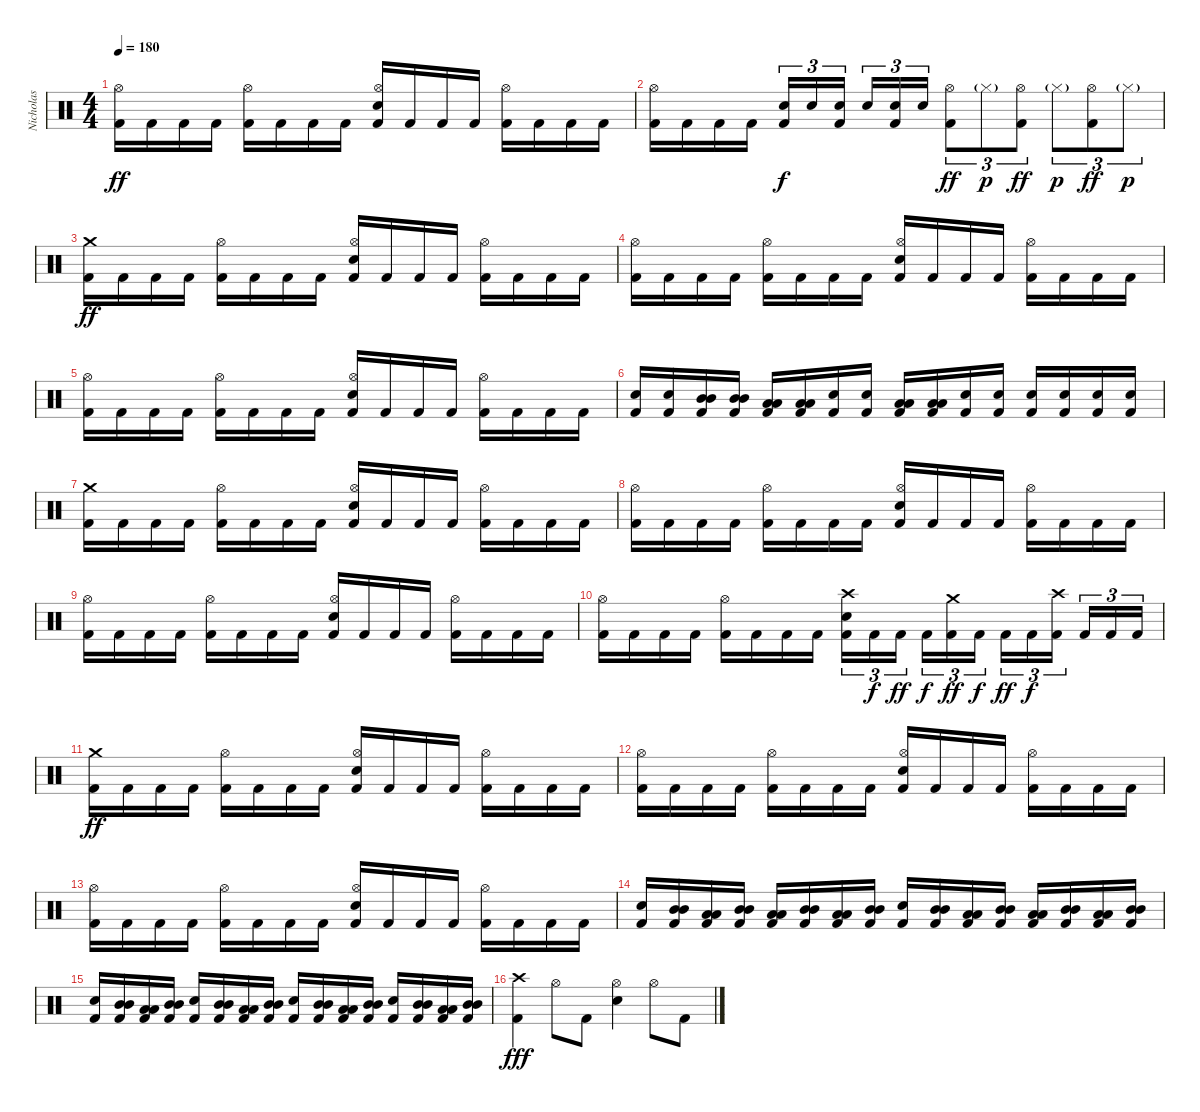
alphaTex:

\track ("Nicholas" "Nicholas") {instrument percussion}
\staff {score}
\articulation defaults
\ts (4 4)
\tempo 180
\clef neutral
\ks c
("Kick (hit) 2" "Hi-Hat (open)").16{dy ff} "Kick (hit) 2".16 "Kick (hit) 2".16 "Kick (hit) 2".16 ("Kick (hit) 2" "Hi-Hat (open)").16 "Kick (hit) 2".16 "Kick (hit) 2".16 "Kick (hit) 2".16 ("Kick (hit) 2" "Electric Snare (hit)" "Hi-Hat (open)").16 "Kick (hit) 2".16 "Kick (hit) 2".16 "Kick (hit) 2".16 ("Kick (hit) 2" "Hi-Hat (open)").16 "Kick (hit) 2".16 "Kick (hit) 2".16 "Kick (hit) 2".16 |
("Kick (hit) 2" "Hi-Hat (open)").16 "Kick (hit) 2".16 "Kick (hit) 2".16 "Kick (hit) 2".16 ("Kick (hit) 2" "Electric Snare (hit)").16{tu (3 2) dy f} "Electric Snare (hit)".16{tu (3 2)} ("Kick (hit) 2" "Electric Snare (hit)").16{tu (3 2) beam splitsecondary} "Electric Snare (hit)".16{tu (3 2)} ("Kick (hit) 2" "Electric Snare (hit)").16{tu (3 2)} "Electric Snare (hit)".16{tu (3 2)} ("Kick (hit) 2" "Hi-Hat (open)").8{tu (3 2) dy ff} "Hi-Hat (closed)"{g}.8{tu (3 2) dy p} ("Kick (hit) 2" "Hi-Hat (open)").8{tu (3 2) dy ff} "Hi-Hat (closed)"{g}.8{tu (3 2) dy p} ("Kick (hit) 2" "Hi-Hat (open)").8{tu (3 2) dy ff} "Hi-Hat (closed)"{g}.8{tu (3 2) dy p} |
("Kick (hit) 2" "Crash medium (hit)").16{dy ff} "Kick (hit) 2".16 "Kick (hit) 2".16 "Kick (hit) 2".16 ("Kick (hit) 2" "Hi-Hat (open)").16 "Kick (hit) 2".16 "Kick (hit) 2".16 "Kick (hit) 2".16 ("Kick (hit) 2" "Electric Snare (hit)" "Hi-Hat (open)").16 "Kick (hit) 2".16 "Kick (hit) 2".16 "Kick (hit) 2".16 ("Kick (hit) 2" "Hi-Hat (open)").16 "Kick (hit) 2".16 "Kick (hit) 2".16 "Kick (hit) 2".16 |
("Kick (hit) 2" "Hi-Hat (open)").16 "Kick (hit) 2".16 "Kick (hit) 2".16 "Kick (hit) 2".16 ("Kick (hit) 2" "Hi-Hat (open)").16 "Kick (hit) 2".16 "Kick (hit) 2".16 "Kick (hit) 2".16 ("Kick (hit) 2" "Electric Snare (hit)" "Hi-Hat (open)").16 "Kick (hit) 2".16 "Kick (hit) 2".16 "Kick (hit) 2".16 ("Kick (hit) 2" "Hi-Hat (open)").16 "Kick (hit) 2".16 "Kick (hit) 2".16 "Kick (hit) 2".16 |
("Kick (hit) 2" "Hi-Hat (open)").16 "Kick (hit) 2".16 "Kick (hit) 2".16 "Kick (hit) 2".16 ("Kick (hit) 2" "Hi-Hat (open)").16 "Kick (hit) 2".16 "Kick (hit) 2".16 "Kick (hit) 2".16 ("Kick (hit) 2" "Electric Snare (hit)" "Hi-Hat (open)").16 "Kick (hit) 2".16 "Kick (hit) 2".16 "Kick (hit) 2".16 ("Kick (hit) 2" "Hi-Hat (open)").16 "Kick (hit) 2".16 "Kick (hit) 2".16 "Kick (hit) 2".16 |
("Kick (hit) 2" "Electric Snare (hit)").16 ("Kick (hit) 2" "Electric Snare (hit)").16 ("Kick (hit) 2" "Mid Tom (hit)" "Mid Tom (hit)").16 ("Kick (hit) 2" "Mid Tom (hit)" "Mid Tom (hit)").16 ("Kick (hit) 2" "Low Tom (hit)" "Low Tom (hit)").16 ("Kick (hit) 2" "Low Tom (hit)" "Low Tom (hit)").16 ("Kick (hit) 2" "Electric Snare (hit)").16 ("Kick (hit) 2" "Electric Snare (hit)").16 ("Kick (hit) 2" "Low Tom (hit)" "Low Tom (hit)").16 ("Kick (hit) 2" "Low Tom (hit)" "Low Tom (hit)").16 ("Kick (hit) 2" "Electric Snare (hit)").16 ("Kick (hit) 2" "Electric Snare (hit)").16 ("Kick (hit) 2" "Electric Snare (hit)").16 ("Kick (hit) 2" "Electric Snare (hit)").16 ("Kick (hit) 2" "Electric Snare (hit)").16 ("Kick (hit) 2" "Electric Snare (hit)").16 |
("Kick (hit) 2" "Crash medium (hit)").16 "Kick (hit) 2".16 "Kick (hit) 2".16 "Kick (hit) 2".16 ("Kick (hit) 2" "Hi-Hat (open)").16 "Kick (hit) 2".16 "Kick (hit) 2".16 "Kick (hit) 2".16 ("Kick (hit) 2" "Electric Snare (hit)" "Hi-Hat (open)").16 "Kick (hit) 2".16 "Kick (hit) 2".16 "Kick (hit) 2".16 ("Kick (hit) 2" "Hi-Hat (open)").16 "Kick (hit) 2".16 "Kick (hit) 2".16 "Kick (hit) 2".16 |
("Kick (hit) 2" "Hi-Hat (open)").16 "Kick (hit) 2".16 "Kick (hit) 2".16 "Kick (hit) 2".16 ("Kick (hit) 2" "Hi-Hat (open)").16 "Kick (hit) 2".16 "Kick (hit) 2".16 "Kick (hit) 2".16 ("Kick (hit) 2" "Electric Snare (hit)" "Hi-Hat (open)").16 "Kick (hit) 2".16 "Kick (hit) 2".16 "Kick (hit) 2".16 ("Kick (hit) 2" "Hi-Hat (open)").16 "Kick (hit) 2".16 "Kick (hit) 2".16 "Kick (hit) 2".16 |
("Kick (hit) 2" "Hi-Hat (open)").16 "Kick (hit) 2".16 "Kick (hit) 2".16 "Kick (hit) 2".16 ("Kick (hit) 2" "Hi-Hat (open)").16 "Kick (hit) 2".16 "Kick (hit) 2".16 "Kick (hit) 2".16 ("Kick (hit) 2" "Electric Snare (hit)" "Hi-Hat (open)").16 "Kick (hit) 2".16 "Kick (hit) 2".16 "Kick (hit) 2".16 ("Kick (hit) 2" "Hi-Hat (open)").16 "Kick (hit) 2".16 "Kick (hit) 2".16 "Kick (hit) 2".16 |
("Kick (hit) 2" "Hi-Hat (open)").16 "Kick (hit) 2".16 "Kick (hit) 2".16 "Kick (hit) 2".16 ("Kick (hit) 2" "Hi-Hat (open)").16 "Kick (hit) 2".16 "Kick (hit) 2".16 "Kick (hit) 2".16 ("Kick (hit) 2" "Electric Snare (hit)" "Crash high (hit)").16{tu (3 2)} "Kick (hit) 2".16{tu (3 2) dy f} "Kick (hit) 2".16{tu (3 2) dy ff beam splitsecondary} "Kick (hit) 2".16{tu (3 2) dy f} ("Kick (hit) 2" "Crash medium (hit)").16{tu (3 2) dy ff} "Kick (hit) 2".16{tu (3 2) dy f} "Kick (hit) 2".16{tu (3 2) dy ff} "Kick (hit) 2".16{tu (3 2) dy f} ("Kick (hit) 2" "Crash high (hit)").16{tu (3 2) beam splitsecondary} "Kick (hit) 2".16{tu (3 2)} "Kick (hit) 2".16{tu (3 2)} "Kick (hit) 2".16{tu (3 2)} |
("Kick (hit) 2" "Crash medium (hit)").16{dy ff} "Kick (hit) 2".16 "Kick (hit) 2".16 "Kick (hit) 2".16 ("Kick (hit) 2" "Hi-Hat (open)").16 "Kick (hit) 2".16 "Kick (hit) 2".16 "Kick (hit) 2".16 ("Kick (hit) 2" "Electric Snare (hit)" "Hi-Hat (open)").16 "Kick (hit) 2".16 "Kick (hit) 2".16 "Kick (hit) 2".16 ("Kick (hit) 2" "Hi-Hat (open)").16 "Kick (hit) 2".16 "Kick (hit) 2".16 "Kick (hit) 2".16 |
("Kick (hit) 2" "Hi-Hat (open)").16 "Kick (hit) 2".16 "Kick (hit) 2".16 "Kick (hit) 2".16 ("Kick (hit) 2" "Hi-Hat (open)").16 "Kick (hit) 2".16 "Kick (hit) 2".16 "Kick (hit) 2".16 ("Kick (hit) 2" "Electric Snare (hit)" "Hi-Hat (open)").16 "Kick (hit) 2".16 "Kick (hit) 2".16 "Kick (hit) 2".16 ("Kick (hit) 2" "Hi-Hat (open)").16 "Kick (hit) 2".16 "Kick (hit) 2".16 "Kick (hit) 2".16 |
("Kick (hit) 2" "Hi-Hat (open)").16 "Kick (hit) 2".16 "Kick (hit) 2".16 "Kick (hit) 2".16 ("Kick (hit) 2" "Hi-Hat (open)").16 "Kick (hit) 2".16 "Kick (hit) 2".16 "Kick (hit) 2".16 ("Kick (hit) 2" "Electric Snare (hit)" "Hi-Hat (open)").16 "Kick (hit) 2".16 "Kick (hit) 2".16 "Kick (hit) 2".16 ("Kick (hit) 2" "Hi-Hat (open)").16 "Kick (hit) 2".16 "Kick (hit) 2".16 "Kick (hit) 2".16 |
("Kick (hit) 2" "Electric Snare (hit)").16 ("Kick (hit) 2" "Mid Tom (hit)" "Mid Tom (hit)").16 ("Kick (hit) 2" "Low Tom (hit)" "Low Tom (hit)").16 ("Kick (hit) 2" "Mid Tom (hit)" "Mid Tom (hit)").16 ("Kick (hit) 2" "Low Tom (hit)" "Low Tom (hit)").16 ("Kick (hit) 2" "Mid Tom (hit)" "Mid Tom (hit)").16 ("Kick (hit) 2" "Low Tom (hit)" "Low Tom (hit)").16 ("Kick (hit) 2" "Mid Tom (hit)" "Mid Tom (hit)").16 ("Kick (hit) 2" "Electric Snare (hit)").16 ("Kick (hit) 2" "Mid Tom (hit)" "Mid Tom (hit)").16 ("Kick (hit) 2" "Low Tom (hit)" "Low Tom (hit)").16 ("Kick (hit) 2" "Mid Tom (hit)" "Mid Tom (hit)").16 ("Kick (hit) 2" "Low Tom (hit)" "Low Tom (hit)").16 ("Kick (hit) 2" "Mid Tom (hit)" "Mid Tom (hit)").16 ("Kick (hit) 2" "Low Tom (hit)" "Low Tom (hit)").16 ("Kick (hit) 2" "Mid Tom (hit)" "Mid Tom (hit)").16 |
("Kick (hit) 2" "Electric Snare (hit)").16 ("Kick (hit) 2" "Mid Tom (hit)" "Mid Tom (hit)").16 ("Kick (hit) 2" "Low Tom (hit)" "Low Tom (hit)").16 ("Kick (hit) 2" "Mid Tom (hit)" "Mid Tom (hit)").16 ("Kick (hit) 2" "Electric Snare (hit)").16 ("Kick (hit) 2" "Mid Tom (hit)" "Mid Tom (hit)").16 ("Kick (hit) 2" "Low Tom (hit)" "Low Tom (hit)").16 ("Kick (hit) 2" "Mid Tom (hit)" "Mid Tom (hit)").16 ("Kick (hit) 2" "Electric Snare (hit)").16 ("Kick (hit) 2" "Mid Tom (hit)" "Mid Tom (hit)").16 ("Kick (hit) 2" "Low Tom (hit)" "Low Tom (hit)").16 ("Kick (hit) 2" "Mid Tom (hit)" "Mid Tom (hit)").16 ("Kick (hit) 2" "Electric Snare (hit)").16 ("Kick (hit) 2" "Mid Tom (hit)" "Mid Tom (hit)").16 ("Kick (hit) 2" "Low Tom (hit)" "Low Tom (hit)").16 ("Kick (hit) 2" "Mid Tom (hit)" "Mid Tom (hit)").16 |
("Kick (hit) 2" "Crash high (hit)").4{dy fff} "Hi-Hat (open)".8 "Kick (hit) 2".8 ("Electric Snare (hit)" "Hi-Hat (open)").4 "Hi-Hat (open)".8 "Kick (hit) 2".8
